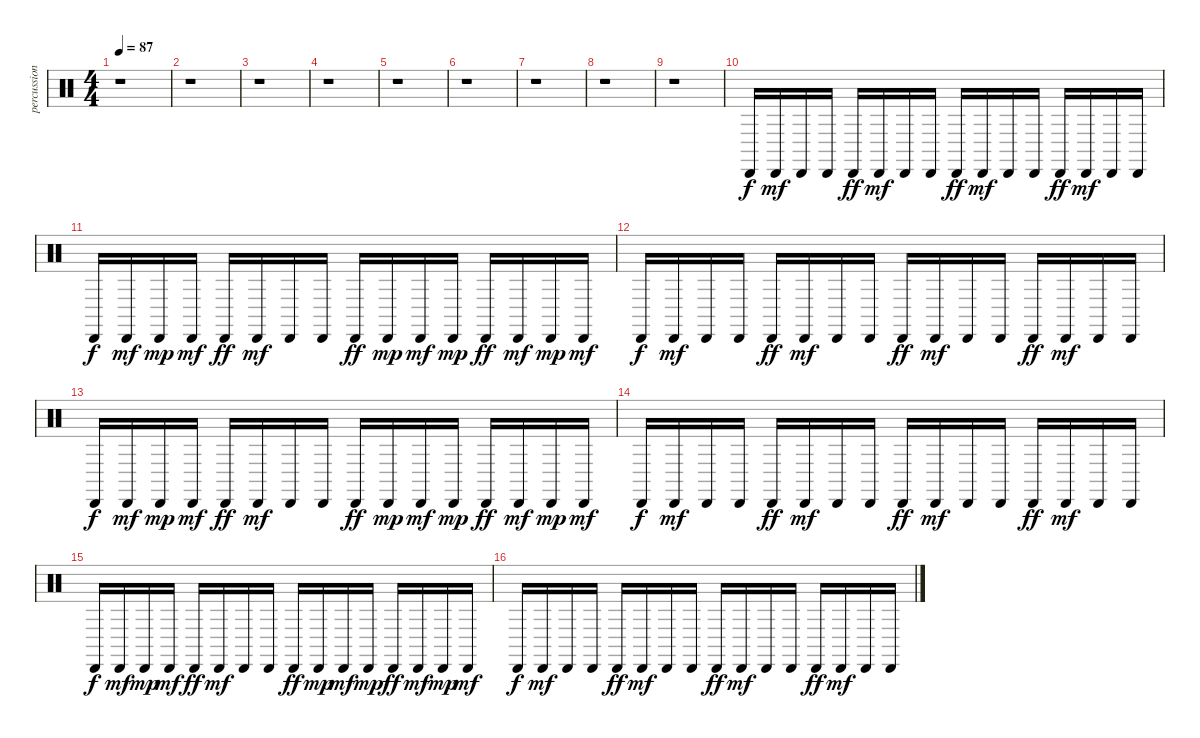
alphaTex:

\track ("percussion" "percussion") {instrument percussion}
\staff {score}
\articulation defaults
\ts (4 4)
\tempo 87
\clef neutral
\ks c
r.1{dy f} |
r.1 |
r.1 |
r.1 |
r.1 |
r.1 |
r.1 |
r.1 |
r.1 |
"Cabasa (hit)".16 "Cabasa (hit)".16{dy mf} "Cabasa (hit)".16 "Cabasa (hit)".16 "Cabasa (hit)".16{dy ff} "Cabasa (hit)".16{dy mf} "Cabasa (hit)".16 "Cabasa (hit)".16 "Cabasa (hit)".16{dy ff} "Cabasa (hit)".16{dy mf} "Cabasa (hit)".16 "Cabasa (hit)".16 "Cabasa (hit)".16{dy ff} "Cabasa (hit)".16{dy mf} "Cabasa (hit)".16 "Cabasa (hit)".16 |
"Cabasa (hit)".16{dy f} "Cabasa (hit)".16{dy mf} "Cabasa (hit)".16{dy mp} "Cabasa (hit)".16{dy mf} "Cabasa (hit)".16{dy ff} "Cabasa (hit)".16{dy mf} "Cabasa (hit)".16 "Cabasa (hit)".16 "Cabasa (hit)".16{dy ff} "Cabasa (hit)".16{dy mp} "Cabasa (hit)".16{dy mf} "Cabasa (hit)".16{dy mp} "Cabasa (hit)".16{dy ff} "Cabasa (hit)".16{dy mf} "Cabasa (hit)".16{dy mp} "Cabasa (hit)".16{dy mf} |
"Cabasa (hit)".16{dy f} "Cabasa (hit)".16{dy mf} "Cabasa (hit)".16 "Cabasa (hit)".16 "Cabasa (hit)".16{dy ff} "Cabasa (hit)".16{dy mf} "Cabasa (hit)".16 "Cabasa (hit)".16 "Cabasa (hit)".16{dy ff} "Cabasa (hit)".16{dy mf} "Cabasa (hit)".16 "Cabasa (hit)".16 "Cabasa (hit)".16{dy ff} "Cabasa (hit)".16{dy mf} "Cabasa (hit)".16 "Cabasa (hit)".16 |
"Cabasa (hit)".16{dy f} "Cabasa (hit)".16{dy mf} "Cabasa (hit)".16{dy mp} "Cabasa (hit)".16{dy mf} "Cabasa (hit)".16{dy ff} "Cabasa (hit)".16{dy mf} "Cabasa (hit)".16 "Cabasa (hit)".16 "Cabasa (hit)".16{dy ff} "Cabasa (hit)".16{dy mp} "Cabasa (hit)".16{dy mf} "Cabasa (hit)".16{dy mp} "Cabasa (hit)".16{dy ff} "Cabasa (hit)".16{dy mf} "Cabasa (hit)".16{dy mp} "Cabasa (hit)".16{dy mf} |
"Cabasa (hit)".16{dy f} "Cabasa (hit)".16{dy mf} "Cabasa (hit)".16 "Cabasa (hit)".16 "Cabasa (hit)".16{dy ff} "Cabasa (hit)".16{dy mf} "Cabasa (hit)".16 "Cabasa (hit)".16 "Cabasa (hit)".16{dy ff} "Cabasa (hit)".16{dy mf} "Cabasa (hit)".16 "Cabasa (hit)".16 "Cabasa (hit)".16{dy ff} "Cabasa (hit)".16{dy mf} "Cabasa (hit)".16 "Cabasa (hit)".16 |
"Cabasa (hit)".16{dy f} "Cabasa (hit)".16{dy mf} "Cabasa (hit)".16{dy mp} "Cabasa (hit)".16{dy mf} "Cabasa (hit)".16{dy ff} "Cabasa (hit)".16{dy mf} "Cabasa (hit)".16 "Cabasa (hit)".16 "Cabasa (hit)".16{dy ff} "Cabasa (hit)".16{dy mp} "Cabasa (hit)".16{dy mf} "Cabasa (hit)".16{dy mp} "Cabasa (hit)".16{dy ff} "Cabasa (hit)".16{dy mf} "Cabasa (hit)".16{dy mp} "Cabasa (hit)".16{dy mf} |
"Cabasa (hit)".16{dy f} "Cabasa (hit)".16{dy mf} "Cabasa (hit)".16 "Cabasa (hit)".16 "Cabasa (hit)".16{dy ff} "Cabasa (hit)".16{dy mf} "Cabasa (hit)".16 "Cabasa (hit)".16 "Cabasa (hit)".16{dy ff} "Cabasa (hit)".16{dy mf} "Cabasa (hit)".16 "Cabasa (hit)".16 "Cabasa (hit)".16{dy ff} "Cabasa (hit)".16{dy mf} "Cabasa (hit)".16 "Cabasa (hit)".16
